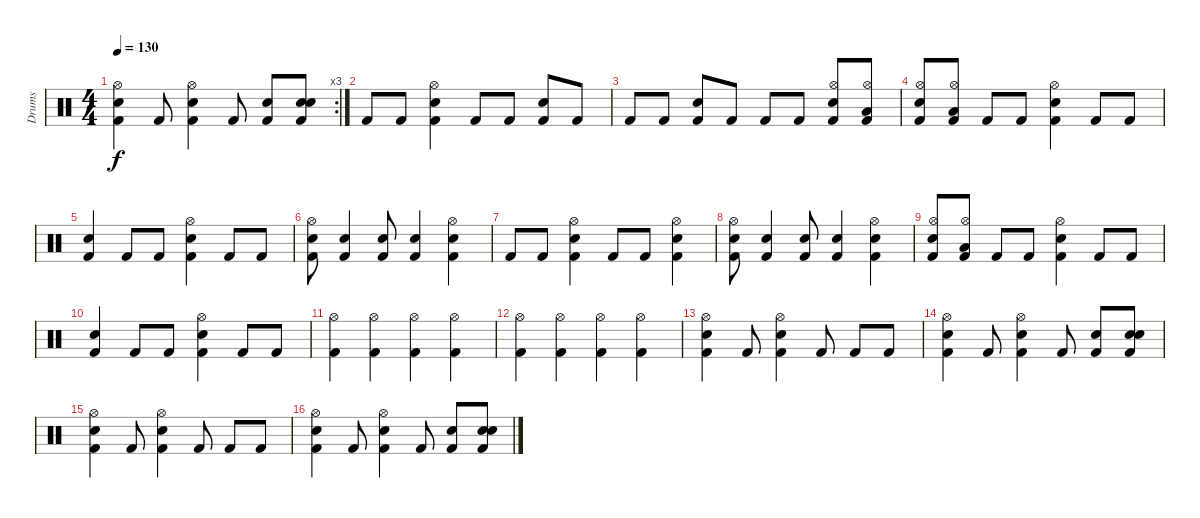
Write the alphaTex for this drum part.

\track ("Drums" "Drums") {instrument percussion}
\staff {score}
\articulation defaults
\rc 3
\ts (4 4)
\tempo 130
\clef neutral
\ks c
("Kick (hit) 2" "Snare (hit) 2" "Hi-Hat (open)").4{dy f} "Kick (hit) 2".8 ("Kick (hit) 2" "Snare (hit) 2" "Hi-Hat (open)").4 "Kick (hit) 2".8 ("Kick (hit) 2" "Electric Snare (hit)").8 ("Kick (hit) 2" "Snare (hit) 2" "Electric Snare (hit)").8 |
"Kick (hit) 2".8 "Kick (hit) 2".8 ("Kick (hit) 2" "Snare (hit) 2" "Hi-Hat (open)").4 "Kick (hit) 2".8 "Kick (hit) 2".8 ("Kick (hit) 2" "Snare (hit) 2").8 "Kick (hit) 2".8 |
"Kick (hit) 2".8 "Kick (hit) 2".8 ("Kick (hit) 2" "Snare (hit) 2").8 "Kick (hit) 2".8 "Kick (hit) 2".8 "Kick (hit) 2".8 ("Kick (hit) 2" "Hi-Hat (open)" "Electric Snare (hit)").8 ("Kick (hit) 2" "Hi-Hat (open)" "Low Floor Tom (hit)").8 |
("Kick (hit) 2" "Hi-Hat (open)" "Electric Snare (hit)").8 ("Kick (hit) 2" "Hi-Hat (open)" "Low Floor Tom (hit)").8 "Kick (hit) 2".8 "Kick (hit) 2".8 ("Kick (hit) 2" "Snare (hit) 2" "Hi-Hat (open)").4 "Kick (hit) 2".8 "Kick (hit) 2".8 |
("Kick (hit) 2" "Snare (hit) 2").4 "Kick (hit) 2".8 "Kick (hit) 2".8 ("Kick (hit) 2" "Snare (hit) 2" "Hi-Hat (open)").4 "Kick (hit) 2".8 "Kick (hit) 2".8 |
("Kick (hit) 2" "Snare (hit) 2" "Hi-Hat (open)").8 ("Kick (hit) 2" "Snare (hit) 2").4 ("Kick (hit) 2" "Snare (hit) 2").8 ("Kick (hit) 2" "Snare (hit) 2").4 ("Kick (hit) 2" "Snare (hit) 2" "Hi-Hat (open)").4 |
"Kick (hit) 2".8 "Kick (hit) 2".8 ("Kick (hit) 2" "Snare (hit) 2" "Hi-Hat (open)").4 "Kick (hit) 2".8 "Kick (hit) 2".8 ("Kick (hit) 2" "Snare (hit) 2" "Hi-Hat (open)").4 |
("Kick (hit) 2" "Snare (hit) 2" "Hi-Hat (open)").8 ("Kick (hit) 2" "Snare (hit) 2").4 ("Kick (hit) 2" "Snare (hit) 2").8 ("Kick (hit) 2" "Snare (hit) 2").4 ("Kick (hit) 2" "Snare (hit) 2" "Hi-Hat (open)").4 |
("Kick (hit) 2" "Hi-Hat (open)" "Electric Snare (hit)").8 ("Kick (hit) 2" "Hi-Hat (open)" "Low Floor Tom (hit)").8 "Kick (hit) 2".8 "Kick (hit) 2".8 ("Kick (hit) 2" "Snare (hit) 2" "Hi-Hat (open)").4 "Kick (hit) 2".8 "Kick (hit) 2".8 |
("Kick (hit) 2" "Snare (hit) 2").4 "Kick (hit) 2".8 "Kick (hit) 2".8 ("Kick (hit) 2" "Snare (hit) 2" "Hi-Hat (open)").4 "Kick (hit) 2".8 "Kick (hit) 2".8 |
("Kick (hit) 2" "Hi-Hat (open)").4 ("Kick (hit) 2" "Hi-Hat (open)").4 ("Kick (hit) 2" "Hi-Hat (open)").4 ("Kick (hit) 2" "Hi-Hat (open)").4 |
("Kick (hit) 2" "Hi-Hat (open)").4 ("Kick (hit) 2" "Hi-Hat (open)").4 ("Kick (hit) 2" "Hi-Hat (open)").4 ("Kick (hit) 2" "Hi-Hat (open)").4 |
("Kick (hit) 2" "Snare (hit) 2" "Hi-Hat (open)").4 "Kick (hit) 2".8 ("Kick (hit) 2" "Snare (hit) 2" "Hi-Hat (open)").4 "Kick (hit) 2".8 "Kick (hit) 2".8 "Kick (hit) 2".8 |
("Kick (hit) 2" "Snare (hit) 2" "Hi-Hat (open)").4 "Kick (hit) 2".8 ("Kick (hit) 2" "Snare (hit) 2" "Hi-Hat (open)").4 "Kick (hit) 2".8 ("Kick (hit) 2" "Electric Snare (hit)").8 ("Kick (hit) 2" "Snare (hit) 2" "Electric Snare (hit)").8 |
("Kick (hit) 2" "Snare (hit) 2" "Hi-Hat (open)").4 "Kick (hit) 2".8 ("Kick (hit) 2" "Snare (hit) 2" "Hi-Hat (open)").4 "Kick (hit) 2".8 "Kick (hit) 2".8 "Kick (hit) 2".8 |
("Kick (hit) 2" "Snare (hit) 2" "Hi-Hat (open)").4 "Kick (hit) 2".8 ("Kick (hit) 2" "Snare (hit) 2" "Hi-Hat (open)").4 "Kick (hit) 2".8 ("Kick (hit) 2" "Electric Snare (hit)").8 ("Kick (hit) 2" "Snare (hit) 2" "Electric Snare (hit)").8
